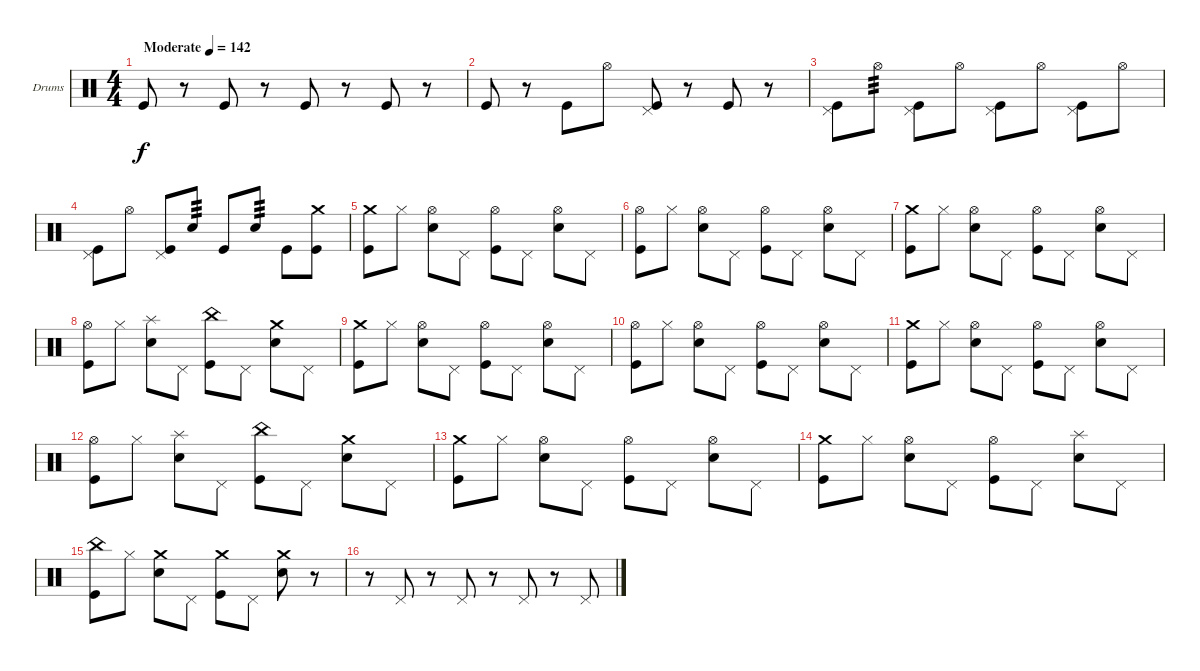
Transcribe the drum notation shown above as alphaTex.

\bracketExtendMode groupsimilarinstruments
\firstSystemTrackNameOrientation horizontal
\otherSystemsTrackNameOrientation horizontal
\track ("Drumkit" "Drums") {solo instrument percussion}
\staff {score}
\articulation defaults
\ts (4 4)
\beaming (8 2 2 2 2)
\tempo (142 "Moderate")
\clef neutral
\ks c "Kick (hit)".8{dy f}
r.8 "Kick (hit)".8 r.8 "Kick (hit)".8 r.8 "Kick (hit)".8 r.8 |
"Kick (hit)".8 r.8 "Kick (hit)".8 "Hi-Hat (open)".8 ("Pedal Hi-Hat (hit)" "Kick (hit)").8 r.8 "Kick (hit)".8 r.8 |
("Pedal Hi-Hat (hit)" "Kick (hit)").8 "Hi-Hat (open)".8{tp 3} ("Pedal Hi-Hat (hit)" "Kick (hit)").8 "Hi-Hat (open)".8 ("Pedal Hi-Hat (hit)" "Kick (hit)").8 "Hi-Hat (open)".8 ("Pedal Hi-Hat (hit)" "Kick (hit)").8 "Hi-Hat (open)".8 |
("Pedal Hi-Hat (hit)" "Kick (hit)").8 "Hi-Hat (open)".8 ("Pedal Hi-Hat (hit)" "Kick (hit)").8 "Snare (hit) 2".8{tp 3} "Kick (hit)".8 "Snare (hit) 2".8{tp 3} "Kick (hit)".8 ("Crash medium (hit)" "Kick (hit)").8 |
("Crash medium (hit)" "Kick (hit)").8 "Hi-Hat (closed)".8 ("Hi-Hat (open)" "Snare (hit) 2").8 "Pedal Hi-Hat (hit)".8 ("Hi-Hat (open)" "Kick (hit)").8 "Pedal Hi-Hat (hit)".8 ("Hi-Hat (open)" "Snare (hit) 2").8 "Pedal Hi-Hat (hit)".8 |
("Hi-Hat (open)" "Kick (hit)").8 "Hi-Hat (closed)".8 ("Hi-Hat (open)" "Snare (hit) 2").8 "Pedal Hi-Hat (hit)".8 ("Hi-Hat (open)" "Kick (hit)").8 "Pedal Hi-Hat (hit)".8 ("Hi-Hat (open)" "Snare (hit) 2").8 "Pedal Hi-Hat (hit)".8 |
("Crash medium (hit)" "Kick (hit)").8 "Hi-Hat (closed)".8 ("Hi-Hat (open)" "Snare (hit) 2").8 "Pedal Hi-Hat (hit)".8 ("Hi-Hat (open)" "Kick (hit)").8 "Pedal Hi-Hat (hit)".8 ("Hi-Hat (open)" "Snare (hit) 2").8 "Pedal Hi-Hat (hit)".8 |
("Hi-Hat (open)" "Kick (hit)").8 "Hi-Hat (closed)".8 ("Splash (hit)" "Snare (hit) 2").8 "Pedal Hi-Hat (hit)".8 ("China (hit)" "Kick (hit)").8 "Pedal Hi-Hat (hit)".8 ("Crash medium (hit)" "Snare (hit) 2").8 "Pedal Hi-Hat (hit)".8 |
("Crash medium (hit)" "Kick (hit)").8 "Hi-Hat (closed)".8 ("Hi-Hat (open)" "Snare (hit) 2").8 "Pedal Hi-Hat (hit)".8 ("Hi-Hat (open)" "Kick (hit)").8 "Pedal Hi-Hat (hit)".8 ("Hi-Hat (open)" "Snare (hit) 2").8 "Pedal Hi-Hat (hit)".8 |
("Hi-Hat (open)" "Kick (hit)").8 "Hi-Hat (closed)".8 ("Hi-Hat (open)" "Snare (hit) 2").8 "Pedal Hi-Hat (hit)".8 ("Hi-Hat (open)" "Kick (hit)").8 "Pedal Hi-Hat (hit)".8 ("Hi-Hat (open)" "Snare (hit) 2").8 "Pedal Hi-Hat (hit)".8 |
("Crash medium (hit)" "Kick (hit)").8 "Hi-Hat (closed)".8 ("Hi-Hat (open)" "Snare (hit) 2").8 "Pedal Hi-Hat (hit)".8 ("Hi-Hat (open)" "Kick (hit)").8 "Pedal Hi-Hat (hit)".8 ("Hi-Hat (open)" "Snare (hit) 2").8 "Pedal Hi-Hat (hit)".8 |
("Hi-Hat (open)" "Kick (hit)").8 "Hi-Hat (closed)".8 ("Splash (hit)" "Snare (hit) 2").8 "Pedal Hi-Hat (hit)".8 ("China (hit)" "Kick (hit)").8 "Pedal Hi-Hat (hit)".8 ("Crash medium (hit)" "Snare (hit) 2").8 "Pedal Hi-Hat (hit)".8 |
("Crash medium (hit)" "Kick (hit)").8 "Hi-Hat (closed)".8 ("Hi-Hat (open)" "Snare (hit) 2").8 "Pedal Hi-Hat (hit)".8 ("Hi-Hat (open)" "Kick (hit)").8 "Pedal Hi-Hat (hit)".8 ("Hi-Hat (open)" "Snare (hit) 2").8 "Pedal Hi-Hat (hit)".8 |
("Crash medium (hit)" "Kick (hit)").8 "Hi-Hat (closed)".8 ("Hi-Hat (open)" "Snare (hit) 2").8 "Pedal Hi-Hat (hit)".8 ("Hi-Hat (open)" "Kick (hit)").8 "Pedal Hi-Hat (hit)".8 ("Splash (hit)" "Snare (hit) 2").8 "Pedal Hi-Hat (hit)".8 |
("China (hit)" "Kick (hit)").8 "Hi-Hat (closed)".8 ("Crash medium (hit)" "Snare (hit) 2").8 "Pedal Hi-Hat (hit)".8 ("Crash medium (hit)" "Kick (hit)").8 "Pedal Hi-Hat (hit)".8 ("Crash medium (hit)" "Snare (hit) 2").8 r.8 |
r.8 "Pedal Hi-Hat (hit)".8 r.8 "Pedal Hi-Hat (hit)".8 r.8 "Pedal Hi-Hat (hit)".8 r.8 "Pedal Hi-Hat (hit)".8
